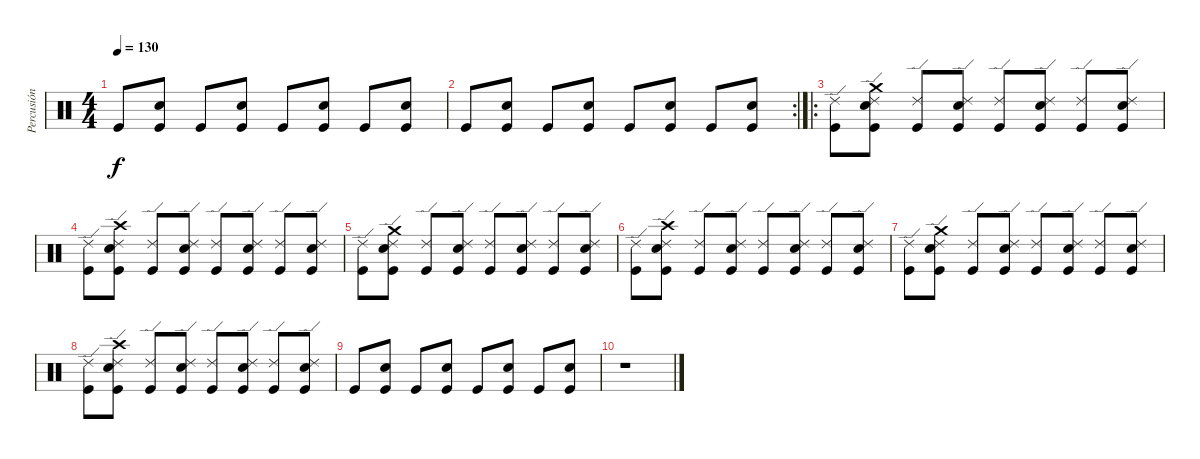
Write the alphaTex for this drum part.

\track ("Percusión" "Percusión") {instrument percussion}
\staff {score}
\articulation defaults
\ts (4 4)
\tempo 130
\clef neutral
\ks c "Kick (hit)".8{dy f}
("Electric Snare (hit)" "Kick (hit)").8 "Kick (hit)".8 ("Electric Snare (hit)" "Kick (hit)").8 "Kick (hit)".8 ("Electric Snare (hit)" "Kick (hit)").8 "Kick (hit)".8 ("Electric Snare (hit)" "Kick (hit)").8 |
\rc 2 "Kick (hit)".8
("Electric Snare (hit)" "Kick (hit)").8 "Kick (hit)".8 ("Electric Snare (hit)" "Kick (hit)").8 "Kick (hit)".8 ("Electric Snare (hit)" "Kick (hit)").8 "Kick (hit)".8 ("Electric Snare (hit)" "Kick (hit)").8 |
\ro
("Ride (edge) 2" "Kick (hit)").8 ("Crash medium (hit)" "Ride (edge) 2" "Electric Snare (hit)" "Kick (hit)").8 ("Ride (edge) 2" "Kick (hit)").8 ("Ride (edge) 2" "Electric Snare (hit)" "Kick (hit)").8 ("Ride (edge) 2" "Kick (hit)").8 ("Ride (edge) 2" "Electric Snare (hit)" "Kick (hit)").8 ("Ride (edge) 2" "Kick (hit)").8 ("Ride (edge) 2" "Electric Snare (hit)" "Kick (hit)").8 |
("Ride (edge) 2" "Kick (hit)").8 ("Crash high (hit)" "Ride (edge) 2" "Electric Snare (hit)" "Kick (hit)").8 ("Ride (edge) 2" "Kick (hit)").8 ("Ride (edge) 2" "Electric Snare (hit)" "Kick (hit)").8 ("Ride (edge) 2" "Kick (hit)").8 ("Ride (edge) 2" "Electric Snare (hit)" "Kick (hit)").8 ("Ride (edge) 2" "Kick (hit)").8 ("Ride (edge) 2" "Electric Snare (hit)" "Kick (hit)").8 |
("Ride (edge) 2" "Kick (hit)").8 ("Crash medium (hit)" "Ride (edge) 2" "Electric Snare (hit)" "Kick (hit)").8 ("Ride (edge) 2" "Kick (hit)").8 ("Ride (edge) 2" "Electric Snare (hit)" "Kick (hit)").8 ("Ride (edge) 2" "Kick (hit)").8 ("Ride (edge) 2" "Electric Snare (hit)" "Kick (hit)").8 ("Ride (edge) 2" "Kick (hit)").8 ("Ride (edge) 2" "Electric Snare (hit)" "Kick (hit)").8 |
("Ride (edge) 2" "Kick (hit)").8 ("Crash high (hit)" "Ride (edge) 2" "Electric Snare (hit)" "Kick (hit)").8 ("Ride (edge) 2" "Kick (hit)").8 ("Ride (edge) 2" "Electric Snare (hit)" "Kick (hit)").8 ("Ride (edge) 2" "Kick (hit)").8 ("Ride (edge) 2" "Electric Snare (hit)" "Kick (hit)").8 ("Ride (edge) 2" "Kick (hit)").8 ("Ride (edge) 2" "Electric Snare (hit)" "Kick (hit)").8 |
("Ride (edge) 2" "Kick (hit)").8 ("Crash medium (hit)" "Ride (edge) 2" "Electric Snare (hit)" "Kick (hit)").8 ("Ride (edge) 2" "Kick (hit)").8 ("Ride (edge) 2" "Electric Snare (hit)" "Kick (hit)").8 ("Ride (edge) 2" "Kick (hit)").8 ("Ride (edge) 2" "Electric Snare (hit)" "Kick (hit)").8 ("Ride (edge) 2" "Kick (hit)").8 ("Ride (edge) 2" "Electric Snare (hit)" "Kick (hit)").8 |
("Ride (edge) 2" "Kick (hit)").8 ("Crash high (hit)" "Ride (edge) 2" "Electric Snare (hit)" "Kick (hit)").8 ("Ride (edge) 2" "Kick (hit)").8 ("Ride (edge) 2" "Electric Snare (hit)" "Kick (hit)").8 ("Ride (edge) 2" "Kick (hit)").8 ("Ride (edge) 2" "Electric Snare (hit)" "Kick (hit)").8 ("Ride (edge) 2" "Kick (hit)").8 ("Ride (edge) 2" "Electric Snare (hit)" "Kick (hit)").8 |
"Kick (hit)".8 ("Electric Snare (hit)" "Kick (hit)").8 "Kick (hit)".8 ("Electric Snare (hit)" "Kick (hit)").8 "Kick (hit)".8 ("Electric Snare (hit)" "Kick (hit)").8 "Kick (hit)".8 ("Electric Snare (hit)" "Kick (hit)").8 |
r.1
